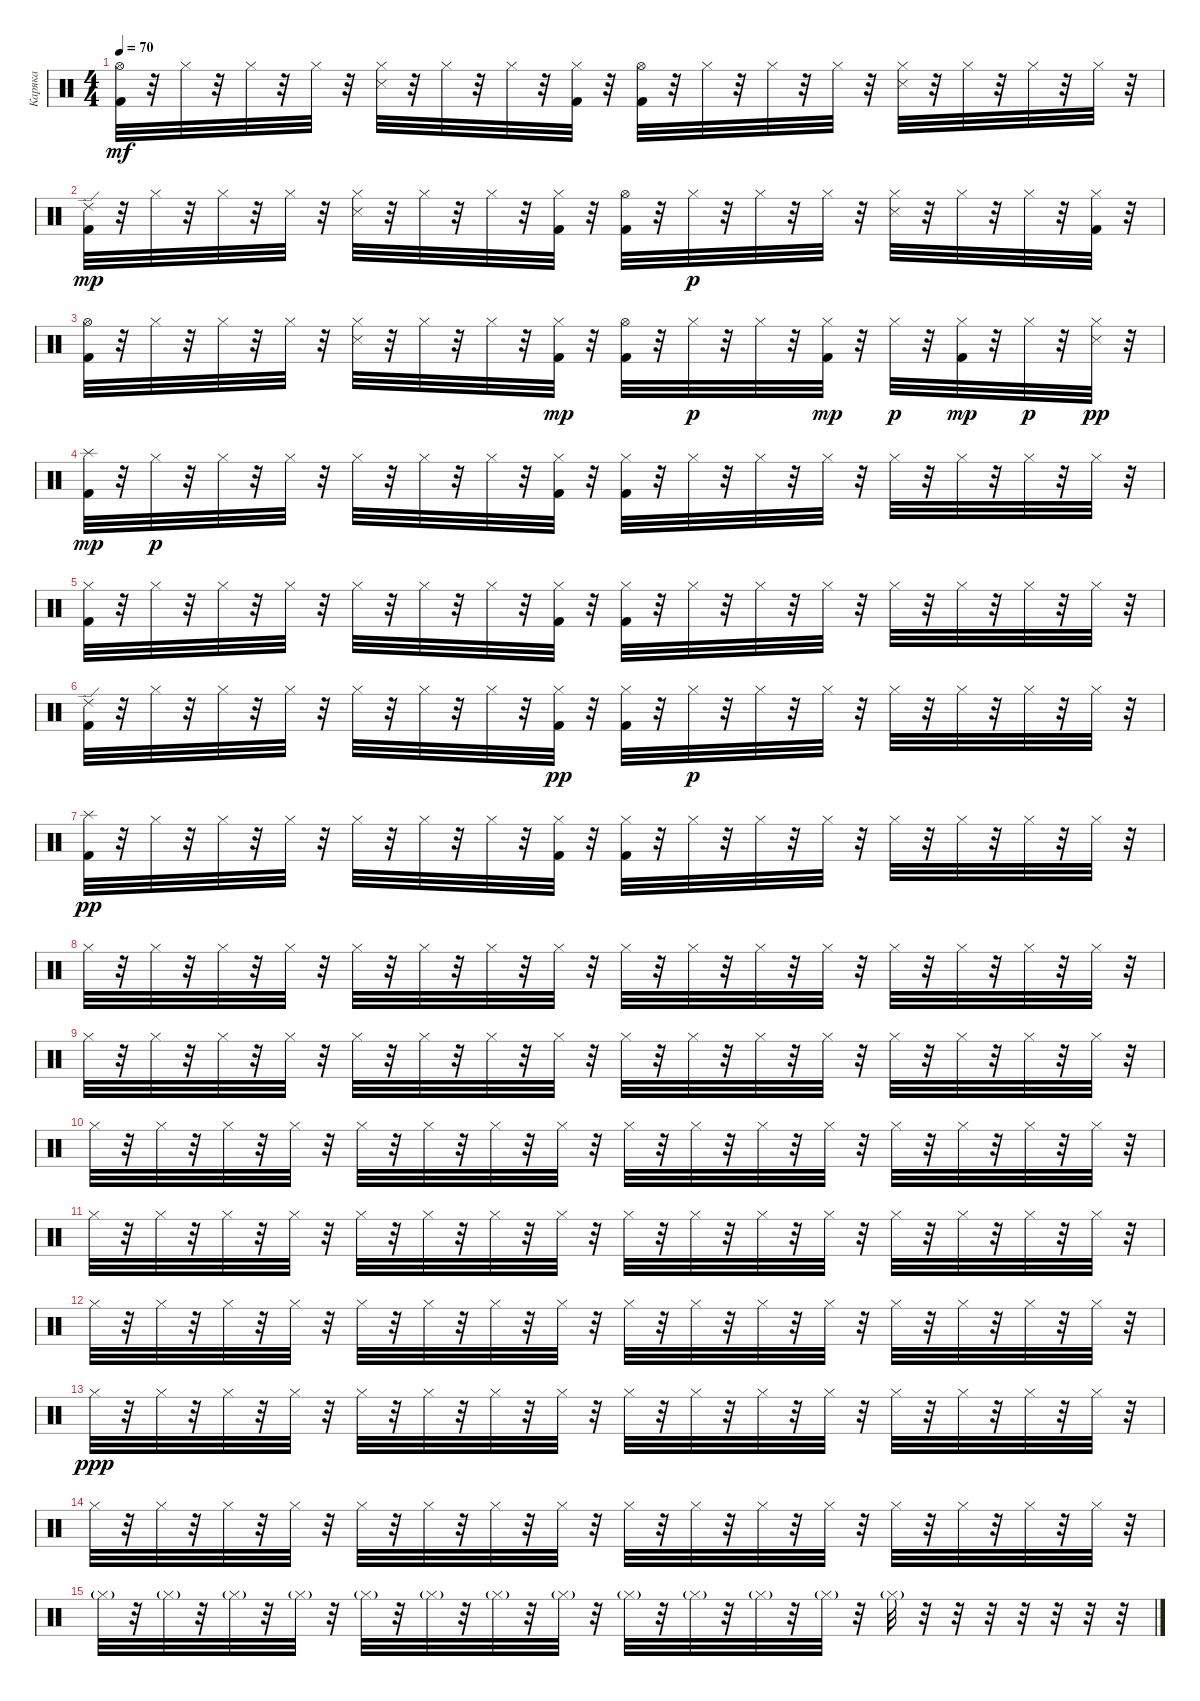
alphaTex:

\track ("Каряка" "Каряка") {instrument percussion}
\staff {score}
\articulation defaults
\ts (4 4)
\tempo 70
\clef neutral
\ks c
("Hi-Hat (open)" "Kick (hit) 2").32{dy mf} r.32 "Hi-Hat (closed)".32 r.32 "Hi-Hat (closed)".32 r.32 "Hi-Hat (closed)".32 r.32 ("Hi-Hat (closed)" "Snare (side stick) 3").32 r.32 "Hi-Hat (closed)".32 r.32 "Hi-Hat (closed)".32 r.32 ("Hi-Hat (closed)" "Kick (hit) 2").32 r.32 ("Hi-Hat (open)" "Kick (hit) 2").32 r.32 "Hi-Hat (closed)".32 r.32 "Hi-Hat (closed)".32 r.32 "Hi-Hat (closed)".32 r.32 ("Hi-Hat (closed)" "Snare (side stick) 3").32 r.32 "Hi-Hat (closed)".32 r.32 "Hi-Hat (closed)".32 r.32 "Hi-Hat (closed)".32 r.32 |
("Ride (edge) 2" "Kick (hit) 2").32{dy mp} r.32 "Hi-Hat (closed)".32 r.32 "Hi-Hat (closed)".32 r.32 "Hi-Hat (closed)".32 r.32 ("Hi-Hat (closed)" "Snare (side stick) 3").32 r.32 "Hi-Hat (closed)".32 r.32 "Hi-Hat (closed)".32 r.32 ("Hi-Hat (closed)" "Kick (hit) 2").32 r.32 ("Hi-Hat (open)" "Kick (hit) 2").32 r.32 "Hi-Hat (closed)".32{dy p} r.32 "Hi-Hat (closed)".32 r.32 "Hi-Hat (closed)".32 r.32 ("Hi-Hat (closed)" "Snare (side stick) 3").32 r.32 "Hi-Hat (closed)".32 r.32 "Hi-Hat (closed)".32 r.32 ("Hi-Hat (closed)" "Kick (hit) 2").32 r.32 |
("Hi-Hat (open)" "Kick (hit) 2").32 r.32 "Hi-Hat (closed)".32 r.32 "Hi-Hat (closed)".32 r.32 "Hi-Hat (closed)".32 r.32 ("Hi-Hat (closed)" "Snare (side stick) 3").32 r.32 "Hi-Hat (closed)".32 r.32 "Hi-Hat (closed)".32 r.32 ("Hi-Hat (closed)" "Kick (hit) 2").32{dy mp} r.32 ("Hi-Hat (open)" "Kick (hit) 2").32 r.32 "Hi-Hat (closed)".32{dy p} r.32 "Hi-Hat (closed)".32 r.32 ("Hi-Hat (closed)" "Kick (hit) 2").32{dy mp} r.32 "Hi-Hat (closed)".32{dy p} r.32 ("Hi-Hat (closed)" "Kick (hit) 2").32{dy mp} r.32 "Hi-Hat (closed)".32{dy p} r.32 ("Hi-Hat (closed)" "Snare (side stick) 3").32{dy pp} r.32 |
("Splash (hit)" "Kick (hit) 2").32{dy mp} r.32 "Hi-Hat (closed)".32{dy p} r.32 "Hi-Hat (closed)".32 r.32 "Hi-Hat (closed)".32 r.32 "Hi-Hat (closed)".32 r.32 "Hi-Hat (closed)".32 r.32 "Hi-Hat (closed)".32 r.32 ("Hi-Hat (closed)" "Kick (hit) 2").32 r.32 ("Hi-Hat (closed)" "Kick (hit) 2").32 r.32 "Hi-Hat (closed)".32 r.32 "Hi-Hat (closed)".32 r.32 "Hi-Hat (closed)".32 r.32 "Hi-Hat (closed)".32 r.32 "Hi-Hat (closed)".32 r.32 "Hi-Hat (closed)".32 r.32 "Hi-Hat (closed)".32 r.32 |
("Hi-Hat (closed)" "Kick (hit) 2").32 r.32 "Hi-Hat (closed)".32 r.32 "Hi-Hat (closed)".32 r.32 "Hi-Hat (closed)".32 r.32 "Hi-Hat (closed)".32 r.32 "Hi-Hat (closed)".32 r.32 "Hi-Hat (closed)".32 r.32 ("Hi-Hat (closed)" "Kick (hit) 2").32 r.32 ("Hi-Hat (closed)" "Kick (hit) 2").32 r.32 "Hi-Hat (closed)".32 r.32 "Hi-Hat (closed)".32 r.32 "Hi-Hat (closed)".32 r.32 "Hi-Hat (closed)".32 r.32 "Hi-Hat (closed)".32 r.32 "Hi-Hat (closed)".32 r.32 "Hi-Hat (closed)".32 r.32 |
("Ride (edge) 2" "Kick (hit) 2").32 r.32 "Hi-Hat (closed)".32 r.32 "Hi-Hat (closed)".32 r.32 "Hi-Hat (closed)".32 r.32 "Hi-Hat (closed)".32 r.32 "Hi-Hat (closed)".32 r.32 "Hi-Hat (closed)".32 r.32 ("Hi-Hat (closed)" "Kick (hit) 2").32{dy pp} r.32 ("Hi-Hat (closed)" "Kick (hit) 2").32 r.32 "Hi-Hat (closed)".32{dy p} r.32 "Hi-Hat (closed)".32 r.32 "Hi-Hat (closed)".32 r.32 "Hi-Hat (closed)".32 r.32 "Hi-Hat (closed)".32 r.32 "Hi-Hat (closed)".32 r.32 "Hi-Hat (closed)".32 r.32 |
("Splash (hit)" "Kick (hit) 2").32{dy pp} r.32 "Hi-Hat (closed)".32 r.32 "Hi-Hat (closed)".32 r.32 "Hi-Hat (closed)".32 r.32 "Hi-Hat (closed)".32 r.32 "Hi-Hat (closed)".32 r.32 "Hi-Hat (closed)".32 r.32 ("Hi-Hat (closed)" "Kick (hit) 2").32 r.32 ("Hi-Hat (closed)" "Kick (hit) 2").32 r.32 "Hi-Hat (closed)".32 r.32 "Hi-Hat (closed)".32 r.32 "Hi-Hat (closed)".32 r.32 "Hi-Hat (closed)".32 r.32 "Hi-Hat (closed)".32 r.32 "Hi-Hat (closed)".32 r.32 "Hi-Hat (closed)".32 r.32 |
"Hi-Hat (closed)".32 r.32 "Hi-Hat (closed)".32 r.32 "Hi-Hat (closed)".32 r.32 "Hi-Hat (closed)".32 r.32 "Hi-Hat (closed)".32 r.32 "Hi-Hat (closed)".32 r.32 "Hi-Hat (closed)".32 r.32 "Hi-Hat (closed)".32 r.32 "Hi-Hat (closed)".32 r.32 "Hi-Hat (closed)".32 r.32 "Hi-Hat (closed)".32 r.32 "Hi-Hat (closed)".32 r.32 "Hi-Hat (closed)".32 r.32 "Hi-Hat (closed)".32 r.32 "Hi-Hat (closed)".32 r.32 "Hi-Hat (closed)".32 r.32 |
"Hi-Hat (closed)".32 r.32 "Hi-Hat (closed)".32 r.32 "Hi-Hat (closed)".32 r.32 "Hi-Hat (closed)".32 r.32 "Hi-Hat (closed)".32 r.32 "Hi-Hat (closed)".32 r.32 "Hi-Hat (closed)".32 r.32 "Hi-Hat (closed)".32 r.32 "Hi-Hat (closed)".32 r.32 "Hi-Hat (closed)".32 r.32 "Hi-Hat (closed)".32 r.32 "Hi-Hat (closed)".32 r.32 "Hi-Hat (closed)".32 r.32 "Hi-Hat (closed)".32 r.32 "Hi-Hat (closed)".32 r.32 "Hi-Hat (closed)".32 r.32 |
"Hi-Hat (closed)".32 r.32 "Hi-Hat (closed)".32 r.32 "Hi-Hat (closed)".32 r.32 "Hi-Hat (closed)".32 r.32 "Hi-Hat (closed)".32 r.32 "Hi-Hat (closed)".32 r.32 "Hi-Hat (closed)".32 r.32 "Hi-Hat (closed)".32 r.32 "Hi-Hat (closed)".32 r.32 "Hi-Hat (closed)".32 r.32 "Hi-Hat (closed)".32 r.32 "Hi-Hat (closed)".32 r.32 "Hi-Hat (closed)".32 r.32 "Hi-Hat (closed)".32 r.32 "Hi-Hat (closed)".32 r.32 "Hi-Hat (closed)".32 r.32 |
"Hi-Hat (closed)".32 r.32 "Hi-Hat (closed)".32 r.32 "Hi-Hat (closed)".32 r.32 "Hi-Hat (closed)".32 r.32 "Hi-Hat (closed)".32 r.32 "Hi-Hat (closed)".32 r.32 "Hi-Hat (closed)".32 r.32 "Hi-Hat (closed)".32 r.32 "Hi-Hat (closed)".32 r.32 "Hi-Hat (closed)".32 r.32 "Hi-Hat (closed)".32 r.32 "Hi-Hat (closed)".32 r.32 "Hi-Hat (closed)".32 r.32 "Hi-Hat (closed)".32 r.32 "Hi-Hat (closed)".32 r.32 "Hi-Hat (closed)".32 r.32 |
"Hi-Hat (closed)".32 r.32 "Hi-Hat (closed)".32 r.32 "Hi-Hat (closed)".32 r.32 "Hi-Hat (closed)".32 r.32 "Hi-Hat (closed)".32 r.32 "Hi-Hat (closed)".32 r.32 "Hi-Hat (closed)".32 r.32 "Hi-Hat (closed)".32 r.32 "Hi-Hat (closed)".32 r.32 "Hi-Hat (closed)".32 r.32 "Hi-Hat (closed)".32 r.32 "Hi-Hat (closed)".32 r.32 "Hi-Hat (closed)".32 r.32 "Hi-Hat (closed)".32 r.32 "Hi-Hat (closed)".32 r.32 "Hi-Hat (closed)".32 r.32 |
"Hi-Hat (closed)".32{dy ppp} r.32 "Hi-Hat (closed)".32 r.32 "Hi-Hat (closed)".32 r.32 "Hi-Hat (closed)".32 r.32 "Hi-Hat (closed)".32 r.32 "Hi-Hat (closed)".32 r.32 "Hi-Hat (closed)".32 r.32 "Hi-Hat (closed)".32 r.32 "Hi-Hat (closed)".32 r.32 "Hi-Hat (closed)".32 r.32 "Hi-Hat (closed)".32 r.32 "Hi-Hat (closed)".32 r.32 "Hi-Hat (closed)".32 r.32 "Hi-Hat (closed)".32 r.32 "Hi-Hat (closed)".32 r.32 "Hi-Hat (closed)".32 r.32 |
"Hi-Hat (closed)".32 r.32 "Hi-Hat (closed)".32 r.32 "Hi-Hat (closed)".32 r.32 "Hi-Hat (closed)".32 r.32 "Hi-Hat (closed)".32 r.32 "Hi-Hat (closed)".32 r.32 "Hi-Hat (closed)".32 r.32 "Hi-Hat (closed)".32 r.32 "Hi-Hat (closed)".32 r.32 "Hi-Hat (closed)".32 r.32 "Hi-Hat (closed)".32 r.32 "Hi-Hat (closed)".32 r.32 "Hi-Hat (closed)".32 r.32 "Hi-Hat (closed)".32 r.32 "Hi-Hat (closed)".32 r.32 "Hi-Hat (closed)".32 r.32 |
"Hi-Hat (closed)"{g}.32 r.32 "Hi-Hat (closed)"{g}.32 r.32 "Hi-Hat (closed)"{g}.32 r.32 "Hi-Hat (closed)"{g}.32 r.32 "Hi-Hat (closed)"{g}.32 r.32 "Hi-Hat (closed)"{g}.32 r.32 "Hi-Hat (closed)"{g}.32 r.32 "Hi-Hat (closed)"{g}.32 r.32 "Hi-Hat (closed)"{g}.32 r.32 "Hi-Hat (closed)"{g}.32 r.32 "Hi-Hat (closed)"{g}.32 r.32 "Hi-Hat (closed)"{g}.32 r.32 "Hi-Hat (closed)"{g}.32 r.32 r.32 r.32 r.32 r.32 r.32 r.32
